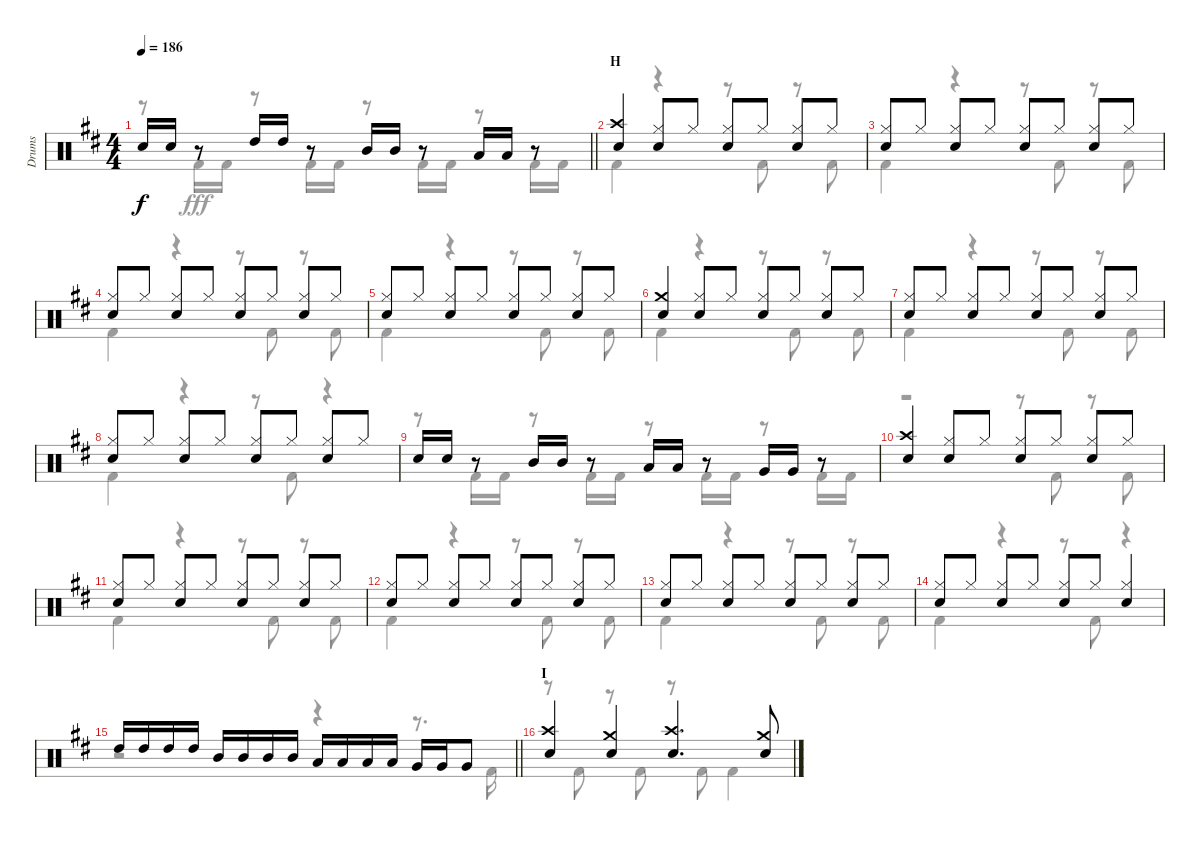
\track ("Drums" "Drums") {instrument percussion}
\staff {score}
\articulation defaults
\voice
\ts (4 4)
\tempo 186
\clef neutral
\barLineRight lightlight
\ks d "Snare (hit) 2".16{dy f} "Snare (hit) 2".16
r.8 "High Tom (hit)".16 "High Tom (hit)".16 r.8 "Mid Tom (hit)".16 "Mid Tom (hit)".16 r.8 "Low Tom (hit)".16 "Low Tom (hit)".16 r.8 |
\section ("" "H")
("Crash high (hit)" "Snare (hit) 2").4 ("Hi-Hat (closed)" "Snare (hit) 2").8 "Hi-Hat (closed)".8 ("Hi-Hat (closed)" "Snare (hit) 2").8 "Hi-Hat (closed)".8 ("Hi-Hat (closed)" "Snare (hit) 2").8 "Hi-Hat (closed)".8 |
("Hi-Hat (closed)" "Snare (hit) 2").8 "Hi-Hat (closed)".8 ("Hi-Hat (closed)" "Snare (hit) 2").8 "Hi-Hat (closed)".8 ("Hi-Hat (closed)" "Snare (hit) 2").8 "Hi-Hat (closed)".8 ("Hi-Hat (closed)" "Snare (hit) 2").8 "Hi-Hat (closed)".8 |
("Hi-Hat (closed)" "Snare (hit) 2").8 "Hi-Hat (closed)".8 ("Hi-Hat (closed)" "Snare (hit) 2").8 "Hi-Hat (closed)".8 ("Hi-Hat (closed)" "Snare (hit) 2").8 "Hi-Hat (closed)".8 ("Hi-Hat (closed)" "Snare (hit) 2").8 "Hi-Hat (closed)".8 |
("Hi-Hat (closed)" "Snare (hit) 2").8 "Hi-Hat (closed)".8 ("Hi-Hat (closed)" "Snare (hit) 2").8 "Hi-Hat (closed)".8 ("Hi-Hat (closed)" "Snare (hit) 2").8 "Hi-Hat (closed)".8 ("Hi-Hat (closed)" "Snare (hit) 2").8 "Hi-Hat (closed)".8 |
("Crash medium (hit)" "Snare (hit) 2").4 ("Hi-Hat (closed)" "Snare (hit) 2").8 "Hi-Hat (closed)".8 ("Hi-Hat (closed)" "Snare (hit) 2").8 "Hi-Hat (closed)".8 ("Hi-Hat (closed)" "Snare (hit) 2").8 "Hi-Hat (closed)".8 |
("Hi-Hat (closed)" "Snare (hit) 2").8 "Hi-Hat (closed)".8 ("Hi-Hat (closed)" "Snare (hit) 2").8 "Hi-Hat (closed)".8 ("Hi-Hat (closed)" "Snare (hit) 2").8 "Hi-Hat (closed)".8 ("Hi-Hat (closed)" "Snare (hit) 2").8 "Hi-Hat (closed)".8 |
("Hi-Hat (closed)" "Snare (hit) 2").8 "Hi-Hat (closed)".8 ("Hi-Hat (closed)" "Snare (hit) 2").8 "Hi-Hat (closed)".8 ("Hi-Hat (closed)" "Snare (hit) 2").8 "Hi-Hat (closed)".8 ("Hi-Hat (closed)" "Snare (hit) 2").8 "Hi-Hat (closed)".8 |
"Snare (hit) 2".16 "Snare (hit) 2".16 r.8 "Mid Tom (hit)".16 "Mid Tom (hit)".16 r.8 "Low Tom (hit)".16 "Low Tom (hit)".16 r.8 "Very Low Tom (hit)".16 "Very Low Tom (hit)".16 r.8 |
("Crash high (hit)" "Snare (hit) 2").4 ("Hi-Hat (closed)" "Snare (hit) 2").8 "Hi-Hat (closed)".8 ("Hi-Hat (closed)" "Snare (hit) 2").8 "Hi-Hat (closed)".8 ("Hi-Hat (closed)" "Snare (hit) 2").8 "Hi-Hat (closed)".8 |
("Hi-Hat (closed)" "Snare (hit) 2").8 "Hi-Hat (closed)".8 ("Hi-Hat (closed)" "Snare (hit) 2").8 "Hi-Hat (closed)".8 ("Hi-Hat (closed)" "Snare (hit) 2").8 "Hi-Hat (closed)".8 ("Hi-Hat (closed)" "Snare (hit) 2").8 "Hi-Hat (closed)".8 |
("Hi-Hat (closed)" "Snare (hit) 2").8 "Hi-Hat (closed)".8 ("Hi-Hat (closed)" "Snare (hit) 2").8 "Hi-Hat (closed)".8 ("Hi-Hat (closed)" "Snare (hit) 2").8 "Hi-Hat (closed)".8 ("Hi-Hat (closed)" "Snare (hit) 2").8 "Hi-Hat (closed)".8 |
("Hi-Hat (closed)" "Snare (hit) 2").8 "Hi-Hat (closed)".8 ("Hi-Hat (closed)" "Snare (hit) 2").8 "Hi-Hat (closed)".8 ("Hi-Hat (closed)" "Snare (hit) 2").8 "Hi-Hat (closed)".8 ("Hi-Hat (closed)" "Snare (hit) 2").8 "Hi-Hat (closed)".8 |
("Hi-Hat (closed)" "Snare (hit) 2").8 "Hi-Hat (closed)".8 ("Hi-Hat (closed)" "Snare (hit) 2").8 "Hi-Hat (closed)".8 ("Hi-Hat (closed)" "Snare (hit) 2").8 "Hi-Hat (closed)".8 ("Hi-Hat (closed)" "Snare (hit) 2").4 |
\barLineRight lightlight "High Tom (hit)".16 "High Tom (hit)".16 "High Tom (hit)".16 "High Tom (hit)".16 "Mid Tom (hit)".16 "Mid Tom (hit)".16 "Mid Tom (hit)".16 "Mid Tom (hit)".16 "Low Tom (hit)".16 "Low Tom (hit)".16 "Low Tom (hit)".16 "Low Tom (hit)".16 "Very Low Tom (hit)".16 "Very Low Tom (hit)".16 "Very Low Tom (hit)".8
|
\section ("" "I")
("Crash high (hit)" "Snare (hit) 2").4 ("Crash medium (hit)" "Snare (hit) 2").4 ("Crash high (hit)" "Snare (hit) 2").4{d} ("Crash medium (hit)" "Snare (hit) 2").8
\voice
\clef neutral
\ottava regular
\simile none
\barLineRight lightlight
\ks d
r.8{dy fff} "Kick (hit) 2".16 "Kick (hit) 2".16 r.8 "Kick (hit) 2".16 "Kick (hit) 2".16 r.8 "Kick (hit) 2".16 "Kick (hit) 2".16 r.8 "Kick (hit) 2".16 "Kick (hit) 2".16 |
"Kick (hit) 2".4 r.4 r.8 "Kick (hit) 2".8 r.8 "Kick (hit) 2".8 |
"Kick (hit) 2".4 r.4 r.8 "Kick (hit) 2".8 r.8 "Kick (hit) 2".8 |
"Kick (hit) 2".4 r.4 r.8 "Kick (hit) 2".8 r.8 "Kick (hit) 2".8 |
"Kick (hit) 2".4 r.4 r.8 "Kick (hit) 2".8 r.8 "Kick (hit) 2".8 |
"Kick (hit) 2".4 r.4 r.8 "Kick (hit) 2".8 r.8 "Kick (hit) 2".8 |
"Kick (hit) 2".4 r.4 r.8 "Kick (hit) 2".8 r.8 "Kick (hit) 2".8 |
"Kick (hit) 2".4 r.4 r.8 "Kick (hit) 2".8 r.4 |
r.8 "Kick (hit) 2".16 "Kick (hit) 2".16 r.8 "Kick (hit) 2".16 "Kick (hit) 2".16 r.8 "Kick (hit) 2".16 "Kick (hit) 2".16 r.8 "Kick (hit) 2".16 "Kick (hit) 2".16 |
r.2 r.8 "Kick (hit) 2".8 r.8 "Kick (hit) 2".8 |
"Kick (hit) 2".4 r.4 r.8 "Kick (hit) 2".8 r.8 "Kick (hit) 2".8 |
"Kick (hit) 2".4 r.4 r.8 "Kick (hit) 2".8 r.8 "Kick (hit) 2".8 |
"Kick (hit) 2".4 r.4 r.8 "Kick (hit) 2".8 r.8 "Kick (hit) 2".8 |
"Kick (hit) 2".4 r.4 r.8 "Kick (hit) 2".8 r.4 |
\barLineRight lightlight
r.2 r.4 r.8{d} "Kick (hit) 2".16 |
r.8 "Kick (hit) 2".8 r.8 "Kick (hit) 2".8 r.8 "Kick (hit) 2".8 "Kick (hit) 2".4
